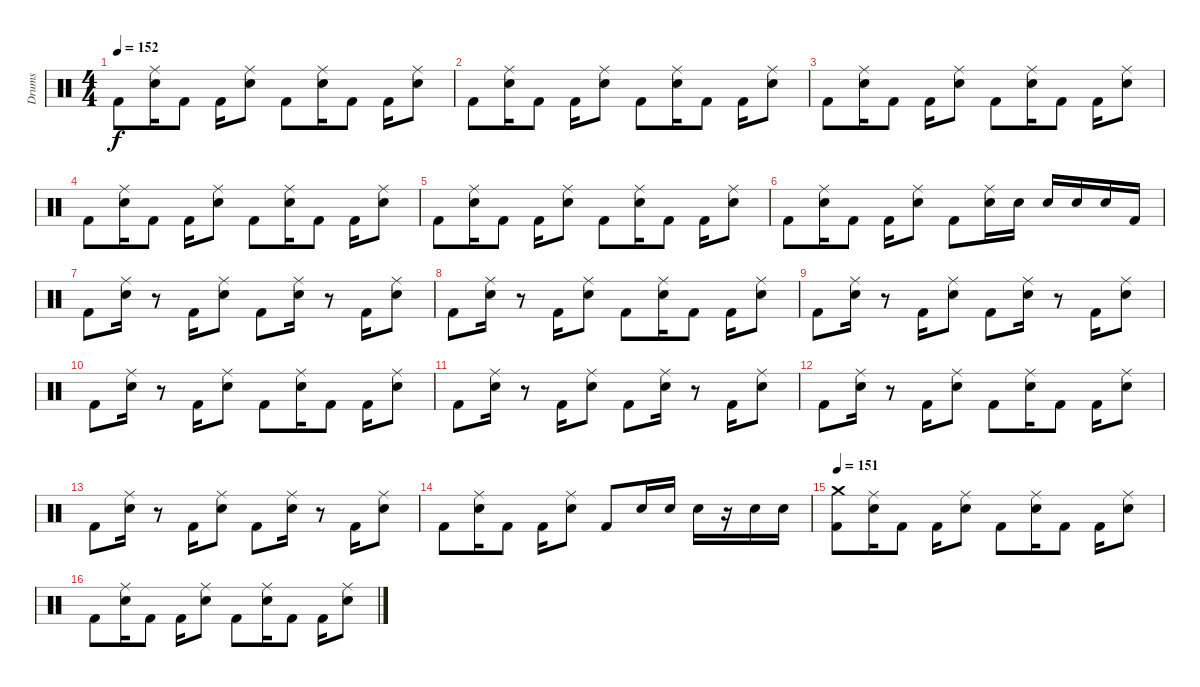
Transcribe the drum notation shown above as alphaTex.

\track ("Drums" "Drums") {instrument percussion}
\staff {score}
\articulation defaults
\ts (4 4)
\tempo 152
\clef neutral
\ks c "Kick (hit) 2".8{dy f}
("Ride (middle)" "Snare (hit) 2").16 "Kick (hit) 2".8 "Kick (hit) 2".16 ("Ride (middle)" "Snare (hit) 2").8 "Kick (hit) 2".8 ("Ride (middle)" "Snare (hit) 2").16 "Kick (hit) 2".8 "Kick (hit) 2".16 ("Ride (middle)" "Snare (hit) 2").8 |
"Kick (hit) 2".8 ("Ride (middle)" "Snare (hit) 2").16 "Kick (hit) 2".8 "Kick (hit) 2".16 ("Ride (middle)" "Snare (hit) 2").8 "Kick (hit) 2".8 ("Ride (middle)" "Snare (hit) 2").16 "Kick (hit) 2".8 "Kick (hit) 2".16 ("Ride (middle)" "Snare (hit) 2").8 |
"Kick (hit) 2".8 ("Ride (middle)" "Snare (hit) 2").16 "Kick (hit) 2".8 "Kick (hit) 2".16 ("Ride (middle)" "Snare (hit) 2").8 "Kick (hit) 2".8 ("Ride (middle)" "Snare (hit) 2").16 "Kick (hit) 2".8 "Kick (hit) 2".16 ("Ride (middle)" "Snare (hit) 2").8 |
"Kick (hit) 2".8 ("Ride (middle)" "Snare (hit) 2").16 "Kick (hit) 2".8 "Kick (hit) 2".16 ("Ride (middle)" "Snare (hit) 2").8 "Kick (hit) 2".8 ("Ride (middle)" "Snare (hit) 2").16 "Kick (hit) 2".8 "Kick (hit) 2".16 ("Ride (middle)" "Snare (hit) 2").8 |
"Kick (hit) 2".8 ("Ride (middle)" "Snare (hit) 2").16 "Kick (hit) 2".8 "Kick (hit) 2".16 ("Ride (middle)" "Snare (hit) 2").8 "Kick (hit) 2".8 ("Ride (middle)" "Snare (hit) 2").16 "Kick (hit) 2".8 "Kick (hit) 2".16 ("Ride (middle)" "Snare (hit) 2").8 |
"Kick (hit) 2".8 ("Ride (middle)" "Snare (hit) 2").16 "Kick (hit) 2".8 "Kick (hit) 2".16 ("Ride (middle)" "Snare (hit) 2").8 "Kick (hit) 2".8 ("Ride (middle)" "Snare (hit) 2").16 "Snare (hit) 2".16 "Snare (hit) 2".16 "Snare (hit) 2".16 "Snare (hit) 2".16 "Kick (hit) 2".16 |
"Kick (hit) 2".8 ("Ride (middle)" "Snare (hit) 2").16 r.8 "Kick (hit) 2".16 ("Ride (middle)" "Snare (hit) 2").8 "Kick (hit) 2".8 ("Ride (middle)" "Snare (hit) 2").16 r.8 "Kick (hit) 2".16 ("Ride (middle)" "Snare (hit) 2").8 |
"Kick (hit) 2".8 ("Ride (middle)" "Snare (hit) 2").16 r.8 "Kick (hit) 2".16 ("Ride (middle)" "Snare (hit) 2").8 "Kick (hit) 2".8 ("Ride (middle)" "Snare (hit) 2").16 "Kick (hit) 2".8 "Kick (hit) 2".16 ("Ride (middle)" "Snare (hit) 2").8 |
"Kick (hit) 2".8 ("Ride (middle)" "Snare (hit) 2").16 r.8 "Kick (hit) 2".16 ("Ride (middle)" "Snare (hit) 2").8 "Kick (hit) 2".8 ("Ride (middle)" "Snare (hit) 2").16 r.8 "Kick (hit) 2".16 ("Ride (middle)" "Snare (hit) 2").8 |
"Kick (hit) 2".8 ("Ride (middle)" "Snare (hit) 2").16 r.8 "Kick (hit) 2".16 ("Ride (middle)" "Snare (hit) 2").8 "Kick (hit) 2".8 ("Ride (middle)" "Snare (hit) 2").16 "Kick (hit) 2".8 "Kick (hit) 2".16 ("Ride (middle)" "Snare (hit) 2").8 |
"Kick (hit) 2".8 ("Ride (middle)" "Snare (hit) 2").16 r.8 "Kick (hit) 2".16 ("Ride (middle)" "Snare (hit) 2").8 "Kick (hit) 2".8 ("Ride (middle)" "Snare (hit) 2").16 r.8 "Kick (hit) 2".16 ("Ride (middle)" "Snare (hit) 2").8 |
"Kick (hit) 2".8 ("Ride (middle)" "Snare (hit) 2").16 r.8 "Kick (hit) 2".16 ("Ride (middle)" "Snare (hit) 2").8 "Kick (hit) 2".8 ("Ride (middle)" "Snare (hit) 2").16 "Kick (hit) 2".8 "Kick (hit) 2".16 ("Ride (middle)" "Snare (hit) 2").8 |
"Kick (hit) 2".8 ("Ride (middle)" "Snare (hit) 2").16 r.8 "Kick (hit) 2".16 ("Ride (middle)" "Snare (hit) 2").8 "Kick (hit) 2".8 ("Ride (middle)" "Snare (hit) 2").16 r.8 "Kick (hit) 2".16 ("Ride (middle)" "Snare (hit) 2").8 |
"Kick (hit) 2".8 ("Ride (middle)" "Snare (hit) 2").16 "Kick (hit) 2".8 "Kick (hit) 2".16 ("Ride (middle)" "Snare (hit) 2").8 "Kick (hit) 2".8 "Snare (hit) 2".16 "Snare (hit) 2".16 "Snare (hit) 2".16 r.16 "Snare (hit) 2".16 "Snare (hit) 2".16 |
\tempo 151
("Crash medium (hit)" "Kick (hit) 2").8 ("Ride (middle)" "Snare (hit) 2").16 "Kick (hit) 2".8 "Kick (hit) 2".16 ("Ride (middle)" "Snare (hit) 2").8 "Kick (hit) 2".8 ("Ride (middle)" "Snare (hit) 2").16 "Kick (hit) 2".8 "Kick (hit) 2".16 ("Ride (middle)" "Snare (hit) 2").8 |
"Kick (hit) 2".8 ("Ride (middle)" "Snare (hit) 2").16 "Kick (hit) 2".8 "Kick (hit) 2".16 ("Ride (middle)" "Snare (hit) 2").8 "Kick (hit) 2".8 ("Ride (middle)" "Snare (hit) 2").16 "Kick (hit) 2".8 "Kick (hit) 2".16 ("Ride (middle)" "Snare (hit) 2").8
